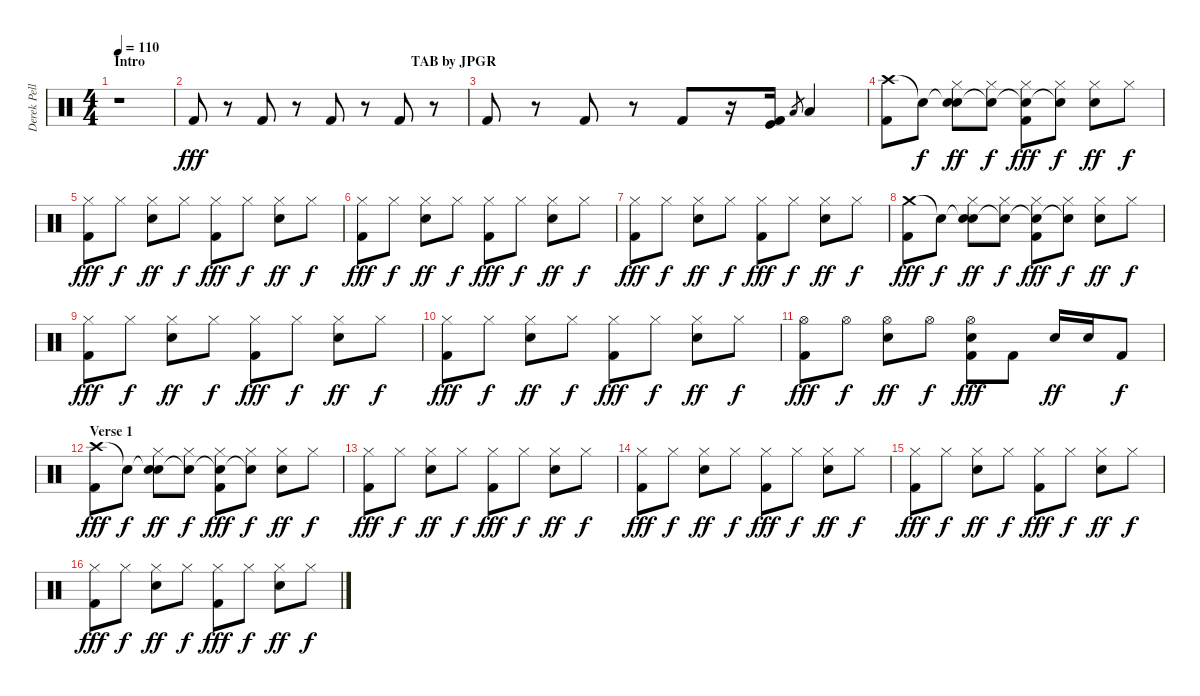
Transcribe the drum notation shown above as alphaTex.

\track ("Derek Pellici" "Derek Pell") {instrument percussion}
\staff {score}
\articulation defaults
\ts (4 4)
\section ("" "Intro                                                                            TAB by JPGR")
\tempo 110
\clef neutral
\ks c
r.1{dy fff} |
"Kick (hit) 2".8 r.8 "Kick (hit) 2".8 r.8 "Kick (hit) 2".8 r.8 "Kick (hit) 2".8 r.8 |
"Kick (hit) 2".8 r.8 "Kick (hit) 2".8 r.8 "Kick (hit) 2".8 r.16 ("Kick (hit)" "Kick (hit) 2").16 "Low Floor Tom (hit)".8{gr} "Low Floor Tom (hit)".4 |
("Crash high (hit)" "Kick (hit) 2").8 "Snare (hit)"{t}.8{dy f} ("Snare (hit)"{t} "Hi-Hat (closed)" "Electric Snare (hit)").8{dy ff} ("Snare (hit)"{t} "Hi-Hat (closed)").8{dy f} ("Snare (hit)"{t} "Hi-Hat (closed)" "Kick (hit) 2").8{dy fff} ("Snare (hit)"{t} "Hi-Hat (closed)").8{dy f} ("Hi-Hat (closed)" "Electric Snare (hit)").8{dy ff} "Hi-Hat (closed)".8{dy f} |
("Hi-Hat (closed)" "Kick (hit) 2").8{dy fff} "Hi-Hat (closed)".8{dy f} ("Hi-Hat (closed)" "Electric Snare (hit)").8{dy ff} "Hi-Hat (closed)".8{dy f} ("Hi-Hat (closed)" "Kick (hit) 2").8{dy fff} "Hi-Hat (closed)".8{dy f} ("Hi-Hat (closed)" "Electric Snare (hit)").8{dy ff} "Hi-Hat (closed)".8{dy f} |
("Hi-Hat (closed)" "Kick (hit) 2").8{dy fff} "Hi-Hat (closed)".8{dy f} ("Hi-Hat (closed)" "Electric Snare (hit)").8{dy ff} "Hi-Hat (closed)".8{dy f} ("Hi-Hat (closed)" "Kick (hit) 2").8{dy fff} "Hi-Hat (closed)".8{dy f} ("Hi-Hat (closed)" "Electric Snare (hit)").8{dy ff} "Hi-Hat (closed)".8{dy f} |
("Hi-Hat (closed)" "Kick (hit) 2").8{dy fff} "Hi-Hat (closed)".8{dy f} ("Hi-Hat (closed)" "Electric Snare (hit)").8{dy ff} "Hi-Hat (closed)".8{dy f} ("Hi-Hat (closed)" "Kick (hit) 2").8{dy fff} "Hi-Hat (closed)".8{dy f} ("Hi-Hat (closed)" "Electric Snare (hit)").8{dy ff} "Hi-Hat (closed)".8{dy f} |
("Crash medium (hit)" "Kick (hit) 2").8{dy fff} "Snare (hit)"{t}.8{dy f} ("Snare (hit)"{t} "Hi-Hat (closed)" "Electric Snare (hit)").8{dy ff} ("Snare (hit)"{t} "Hi-Hat (closed)").8{dy f} ("Snare (hit)"{t} "Hi-Hat (closed)" "Kick (hit) 2").8{dy fff} ("Snare (hit)"{t} "Hi-Hat (closed)").8{dy f} ("Hi-Hat (closed)" "Electric Snare (hit)").8{dy ff} "Hi-Hat (closed)".8{dy f} |
("Hi-Hat (closed)" "Kick (hit) 2").8{dy fff} "Hi-Hat (closed)".8{dy f} ("Hi-Hat (closed)" "Electric Snare (hit)").8{dy ff} "Hi-Hat (closed)".8{dy f} ("Hi-Hat (closed)" "Kick (hit) 2").8{dy fff} "Hi-Hat (closed)".8{dy f} ("Hi-Hat (closed)" "Electric Snare (hit)").8{dy ff} "Hi-Hat (closed)".8{dy f} |
("Hi-Hat (closed)" "Kick (hit) 2").8{dy fff} "Hi-Hat (closed)".8{dy f} ("Hi-Hat (closed)" "Electric Snare (hit)").8{dy ff} "Hi-Hat (closed)".8{dy f} ("Hi-Hat (closed)" "Kick (hit) 2").8{dy fff} "Hi-Hat (closed)".8{dy f} ("Hi-Hat (closed)" "Electric Snare (hit)").8{dy ff} "Hi-Hat (closed)".8{dy f} |
("Hi-Hat (open)" "Kick (hit) 2").8{dy fff} "Hi-Hat (open)".8{dy f} ("Hi-Hat (open)" "Snare (hit) 2").8{dy ff} "Hi-Hat (open)".8{dy f} ("Hi-Hat (open)" "Snare (hit) 2" "Kick (hit) 2").8{dy fff} "Kick (hit) 2".8 "Snare (hit) 2".16{dy ff} "Snare (hit) 2".16 "Kick (hit) 2".8{dy f} |
\section ("" "Verse 1")
("Crash high (hit)" "Kick (hit) 2").8{dy fff} "Snare (hit)"{t}.8{dy f} ("Snare (hit)"{t} "Hi-Hat (closed)" "Electric Snare (hit)").8{dy ff} ("Snare (hit)"{t} "Hi-Hat (closed)").8{dy f} ("Snare (hit)"{t} "Hi-Hat (closed)" "Kick (hit) 2").8{dy fff} ("Snare (hit)"{t} "Hi-Hat (closed)").8{dy f} ("Hi-Hat (closed)" "Electric Snare (hit)").8{dy ff} "Hi-Hat (closed)".8{dy f} |
("Hi-Hat (closed)" "Kick (hit) 2").8{dy fff} "Hi-Hat (closed)".8{dy f} ("Hi-Hat (closed)" "Electric Snare (hit)").8{dy ff} "Hi-Hat (closed)".8{dy f} ("Hi-Hat (closed)" "Kick (hit) 2").8{dy fff} "Hi-Hat (closed)".8{dy f} ("Hi-Hat (closed)" "Electric Snare (hit)").8{dy ff} "Hi-Hat (closed)".8{dy f} |
("Hi-Hat (closed)" "Kick (hit) 2").8{dy fff} "Hi-Hat (closed)".8{dy f} ("Hi-Hat (closed)" "Electric Snare (hit)").8{dy ff} "Hi-Hat (closed)".8{dy f} ("Hi-Hat (closed)" "Kick (hit) 2").8{dy fff} "Hi-Hat (closed)".8{dy f} ("Hi-Hat (closed)" "Electric Snare (hit)").8{dy ff} "Hi-Hat (closed)".8{dy f} |
("Hi-Hat (closed)" "Kick (hit) 2").8{dy fff} "Hi-Hat (closed)".8{dy f} ("Hi-Hat (closed)" "Electric Snare (hit)").8{dy ff} "Hi-Hat (closed)".8{dy f} ("Hi-Hat (closed)" "Kick (hit) 2").8{dy fff} "Hi-Hat (closed)".8{dy f} ("Hi-Hat (closed)" "Electric Snare (hit)").8{dy ff} "Hi-Hat (closed)".8{dy f} |
("Hi-Hat (closed)" "Kick (hit) 2").8{dy fff} "Hi-Hat (closed)".8{dy f} ("Hi-Hat (closed)" "Electric Snare (hit)").8{dy ff} "Hi-Hat (closed)".8{dy f} ("Hi-Hat (closed)" "Kick (hit) 2").8{dy fff} "Hi-Hat (closed)".8{dy f} ("Hi-Hat (closed)" "Electric Snare (hit)").8{dy ff} "Hi-Hat (closed)".8{dy f}
